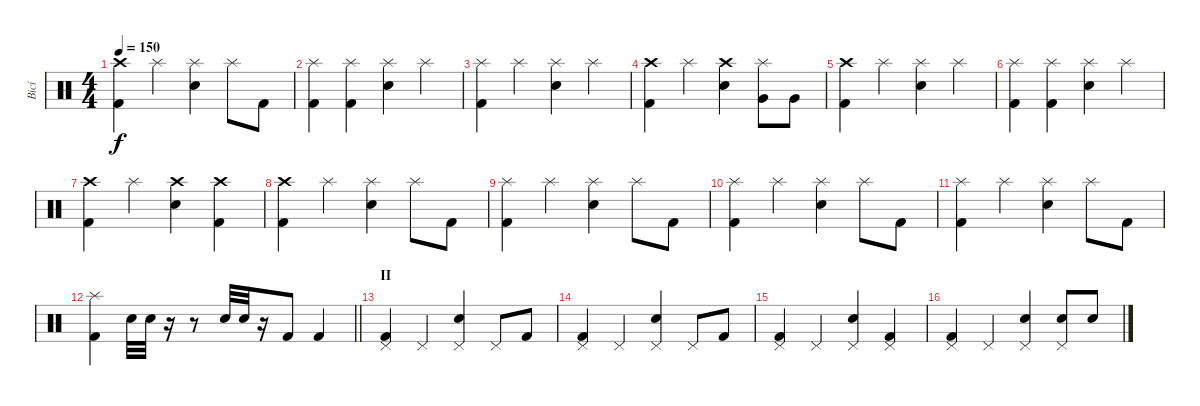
\track ("Bicí" "Bicí") {instrument percussion}
\staff {score}
\articulation defaults
\ts (4 4)
\tempo 150
\clef neutral
\ks c
("Crash high (hit)" "Kick (hit) 2").4{dy f} "Splash (hit)".4 ("Splash (hit)" "Electric Snare (hit)").4 "Splash (hit)".8 "Kick (hit) 2".8 |
("Splash (hit)" "Kick (hit) 2").4 ("Splash (hit)" "Kick (hit) 2").4 ("Splash (hit)" "Electric Snare (hit)").4 "Splash (hit)".4 |
("Splash (hit)" "Kick (hit) 2").4 "Splash (hit)".4 ("Splash (hit)" "Electric Snare (hit)").4 "Splash (hit)".4 |
("Crash high (hit)" "Kick (hit) 2").4 "Splash (hit)".4 ("Crash high (hit)" "Electric Snare (hit)").4 ("Splash (hit)" "Very Low Tom (hit)").8 "Very Low Tom (hit)".8 |
("Crash high (hit)" "Kick (hit) 2").4 "Splash (hit)".4 ("Splash (hit)" "Electric Snare (hit)").4 "Splash (hit)".4 |
("Splash (hit)" "Kick (hit) 2").4 ("Splash (hit)" "Kick (hit) 2").4 ("Splash (hit)" "Electric Snare (hit)").4 "Splash (hit)".4 |
("Crash high (hit)" "Kick (hit) 2").4 "Splash (hit)".4 ("Crash high (hit)" "Electric Snare (hit)").4 ("Crash high (hit)" "Kick (hit) 2").4 |
("Crash high (hit)" "Kick (hit) 2").4 "Splash (hit)".4 ("Splash (hit)" "Electric Snare (hit)").4 "Splash (hit)".8 "Kick (hit) 2".8 |
("Splash (hit)" "Kick (hit) 2").4 "Splash (hit)".4 ("Splash (hit)" "Electric Snare (hit)").4 "Splash (hit)".8 "Kick (hit) 2".8 |
("Splash (hit)" "Kick (hit) 2").4 "Splash (hit)".4 ("Splash (hit)" "Electric Snare (hit)").4 "Splash (hit)".8 "Kick (hit) 2".8 |
("Splash (hit)" "Kick (hit) 2").4 "Splash (hit)".4 ("Splash (hit)" "Electric Snare (hit)").4 "Splash (hit)".8 "Kick (hit) 2".8 |
\barLineRight lightlight
("Splash (hit)" "Kick (hit) 2").4 "Electric Snare (hit)".32 "Electric Snare (hit)".32 r.16 r.8 "Electric Snare (hit)".32 "Electric Snare (hit)".32 r.16 "Kick (hit) 2".8 "Kick (hit) 2".4 |
\section ("" "II")
("Pedal Hi-Hat (hit)" "Kick (hit) 2").4 "Pedal Hi-Hat (hit)".4 ("Pedal Hi-Hat (hit)" "Electric Snare (hit)").4 "Pedal Hi-Hat (hit)".8 "Kick (hit) 2".8 |
("Pedal Hi-Hat (hit)" "Kick (hit) 2").4 "Pedal Hi-Hat (hit)".4 ("Pedal Hi-Hat (hit)" "Electric Snare (hit)").4 "Pedal Hi-Hat (hit)".8 "Kick (hit) 2".8 |
("Pedal Hi-Hat (hit)" "Kick (hit) 2").4 "Pedal Hi-Hat (hit)".4 ("Pedal Hi-Hat (hit)" "Electric Snare (hit)").4 ("Pedal Hi-Hat (hit)" "Kick (hit) 2").4 |
("Pedal Hi-Hat (hit)" "Kick (hit) 2").4 "Pedal Hi-Hat (hit)".4 ("Pedal Hi-Hat (hit)" "Electric Snare (hit)").4 ("Pedal Hi-Hat (hit)" "Electric Snare (hit)").8 "Electric Snare (hit)".8
